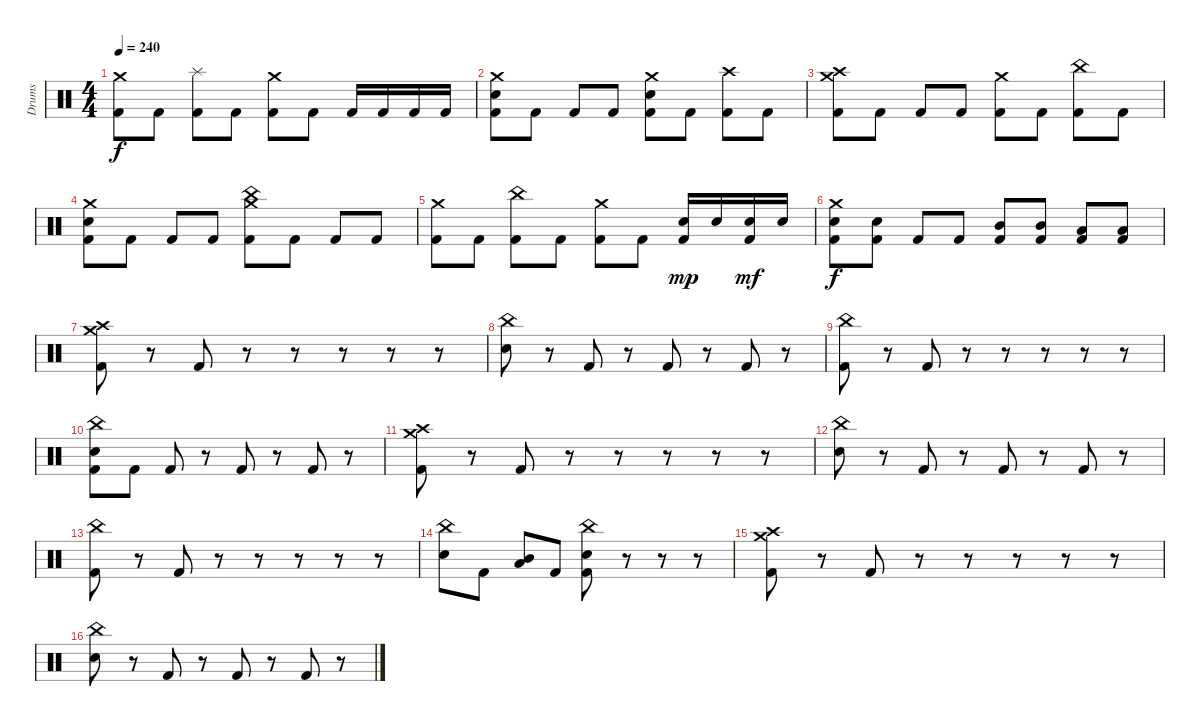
\track ("Drums" "Drums") {instrument percussion}
\staff {score}
\articulation defaults
\ts (4 4)
\tempo 240
\clef neutral
\ks c
("Crash medium (hit)" "Kick (hit) 2").8{dy f} "Kick (hit) 2".8 ("Splash (hit)" "Kick (hit) 2").8 "Kick (hit) 2".8 ("Crash medium (hit)" "Kick (hit) 2").8 "Kick (hit) 2".8 "Kick (hit) 2".16 "Kick (hit) 2".16 "Kick (hit) 2".16 "Kick (hit) 2".16 |
("Crash medium (hit)" "Electric Snare (hit)" "Kick (hit) 2").8 "Kick (hit) 2".8 "Kick (hit) 2".8 "Kick (hit) 2".8 ("Crash medium (hit)" "Electric Snare (hit)" "Kick (hit) 2").8 "Kick (hit) 2".8 ("Crash high (hit)" "Kick (hit) 2").8 "Kick (hit) 2".8 |
("Crash medium (hit)" "Crash high (hit)" "Kick (hit) 2").8 "Kick (hit) 2".8 "Kick (hit) 2".8 "Kick (hit) 2".8 ("Crash medium (hit)" "Kick (hit) 2").8 "Kick (hit) 2".8 ("China (hit)" "Kick (hit) 2").8 "Kick (hit) 2".8 |
("Crash medium (hit)" "Electric Snare (hit)" "Kick (hit) 2").8 "Kick (hit) 2".8 "Kick (hit) 2".8 "Kick (hit) 2".8 ("China (hit)" "Crash medium (hit)" "Kick (hit) 2").8 "Kick (hit) 2".8 "Kick (hit) 2".8 "Kick (hit) 2".8 |
("Crash medium (hit)" "Kick (hit) 2").8 "Kick (hit) 2".8 ("China (hit)" "Kick (hit) 2").8 "Kick (hit) 2".8 ("Crash medium (hit)" "Kick (hit) 2").8 "Kick (hit) 2".8 ("Electric Snare (hit)" "Kick (hit) 2").16{dy mp} "Electric Snare (hit)".16 ("Electric Snare (hit)" "Kick (hit) 2").16{dy mf} "Electric Snare (hit)".16 |
("Crash medium (hit)" "Electric Snare (hit)" "Kick (hit) 2").8{dy f} ("Electric Snare (hit)" "Kick (hit) 2").8 "Kick (hit) 2".8 "Kick (hit) 2".8 ("Mid Tom (hit)" "Kick (hit) 2").8 ("Mid Tom (hit)" "Kick (hit) 2").8 ("Low Tom (hit)" "Kick (hit) 2").8 ("Low Tom (hit)" "Kick (hit) 2").8 |
("Crash medium (hit)" "Crash high (hit)" "Kick (hit) 2").8 r.8 "Kick (hit) 2".8 r.8 r.8 r.8 r.8 r.8 |
("China (hit)" "Electric Snare (hit)").8 r.8 "Kick (hit) 2".8 r.8 "Kick (hit) 2".8 r.8 "Kick (hit) 2".8 r.8 |
("China (hit)" "Kick (hit) 2").8 r.8 "Kick (hit) 2".8 r.8 r.8 r.8 r.8 r.8 |
("China (hit)" "Electric Snare (hit)" "Kick (hit) 2").8 "Kick (hit) 2".8 "Kick (hit) 2".8 r.8 "Kick (hit) 2".8 r.8 "Kick (hit) 2".8 r.8 |
("Crash medium (hit)" "Crash high (hit)" "Kick (hit) 2").8 r.8 "Kick (hit) 2".8 r.8 r.8 r.8 r.8 r.8 |
("China (hit)" "Electric Snare (hit)").8 r.8 "Kick (hit) 2".8 r.8 "Kick (hit) 2".8 r.8 "Kick (hit) 2".8 r.8 |
("China (hit)" "Kick (hit) 2").8 r.8 "Kick (hit) 2".8 r.8 r.8 r.8 r.8 r.8 |
("China (hit)" "Electric Snare (hit)").8 "Kick (hit) 2".8 ("Mid Tom (hit)" "Low Tom (hit)").8 "Kick (hit) 2".8 ("China (hit)" "Electric Snare (hit)" "Kick (hit) 2").8 r.8 r.8 r.8 |
("Crash medium (hit)" "Crash high (hit)" "Kick (hit) 2").8 r.8 "Kick (hit) 2".8 r.8 r.8 r.8 r.8 r.8 |
("China (hit)" "Electric Snare (hit)").8 r.8 "Kick (hit) 2".8 r.8 "Kick (hit) 2".8 r.8 "Kick (hit) 2".8 r.8
